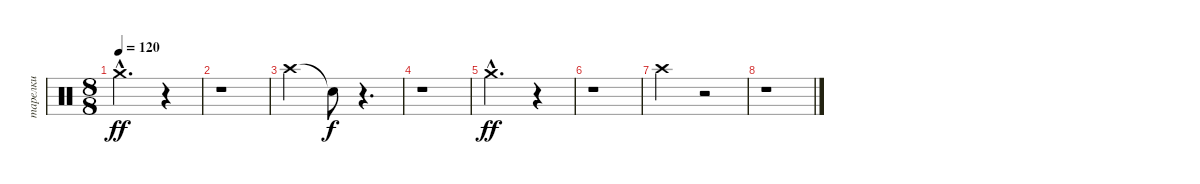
\track ("тарелки" "тарелки") {instrument percussion}
\staff {score}
\articulation defaults
\ts (8 8)
\tempo 120
\clef neutral
\ks c "Crash medium (hit)"{hac}.2{d dy ff}
r.4 |
r.1 |
"Crash high (hit)".2 "Snare (hit)"{t}.8{dy f} r.4{d} |
r.1 |
"Crash medium (hit)"{hac}.2{d dy ff} r.4 |
r.1 |
"Crash high (hit)".2 r.2 |
r.1
